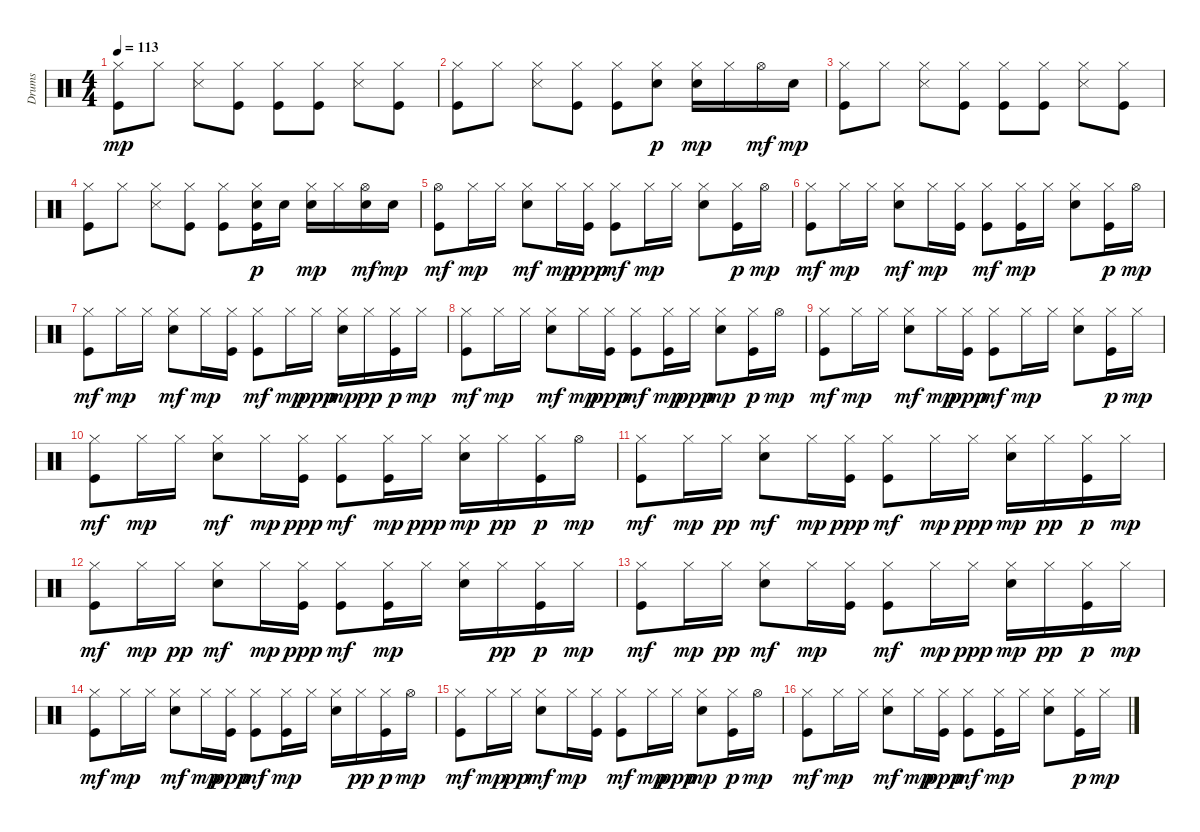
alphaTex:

\track ("Drums" "Drums") {instrument percussion}
\staff {score}
\articulation defaults
\ts (4 4)
\tempo 113
\clef neutral
\ks c
("Kick (hit)" "Hi-Hat (closed)").8{dy mp} "Hi-Hat (closed)".8 ("Snare (side stick) 3" "Hi-Hat (closed)").8 ("Kick (hit)" "Hi-Hat (closed)").8 ("Kick (hit)" "Hi-Hat (closed)").8 ("Kick (hit)" "Hi-Hat (closed)").8 ("Snare (side stick) 3" "Hi-Hat (closed)").8 ("Kick (hit)" "Hi-Hat (closed)").8 |
("Kick (hit)" "Hi-Hat (closed)").8 "Hi-Hat (closed)".8 ("Snare (side stick) 3" "Hi-Hat (closed)").8 ("Kick (hit)" "Hi-Hat (closed)").8 ("Kick (hit)" "Hi-Hat (closed)").8 ("Hi-Hat (closed)" "Snare (hit) 2").8{dy p} ("Snare (hit) 2" "Hi-Hat (closed)").16{dy mp} "Hi-Hat (closed)".16 "Hi-Hat (open)".16{dy mf} "Snare (hit) 2".16{dy mp} |
("Kick (hit)" "Hi-Hat (closed)").8 "Hi-Hat (closed)".8 ("Snare (side stick) 3" "Hi-Hat (closed)").8 ("Kick (hit)" "Hi-Hat (closed)").8 ("Kick (hit)" "Hi-Hat (closed)").8 ("Kick (hit)" "Hi-Hat (closed)").8 ("Snare (side stick) 3" "Hi-Hat (closed)").8 ("Kick (hit)" "Hi-Hat (closed)").8 |
("Kick (hit)" "Hi-Hat (closed)").8 "Hi-Hat (closed)".8 ("Snare (side stick) 3" "Hi-Hat (closed)").8 ("Kick (hit)" "Hi-Hat (closed)").8 ("Kick (hit)" "Hi-Hat (closed)").8 ("Kick (hit)" "Hi-Hat (closed)" "Snare (hit) 2").16{dy p} "Snare (hit) 2".16 ("Snare (hit) 2" "Hi-Hat (closed)").16{dy mp} "Hi-Hat (closed)".16 ("Snare (hit) 2" "Hi-Hat (open)").16{dy mf} "Snare (hit) 2".16{dy mp} |
("Kick (hit)" "Hi-Hat (open)").8{dy mf} "Hi-Hat (closed)".16{dy mp} "Hi-Hat (closed)".16 ("Snare (hit) 2" "Hi-Hat (closed)").8{dy mf} "Hi-Hat (closed)".16{dy mp} ("Kick (hit)" "Hi-Hat (closed)").16{dy ppp} ("Kick (hit)" "Hi-Hat (closed)").8{dy mf} "Hi-Hat (closed)".16{dy mp} "Hi-Hat (closed)".16 ("Snare (hit) 2" "Hi-Hat (closed)").8 ("Kick (hit)" "Hi-Hat (closed)").16{dy p} "Hi-Hat (open)".16{dy mp} |
("Kick (hit)" "Hi-Hat (closed)").8{dy mf} "Hi-Hat (closed)".16{dy mp} "Hi-Hat (closed)".16 ("Snare (hit) 2" "Hi-Hat (closed)").8{dy mf} "Hi-Hat (closed)".16{dy mp} ("Kick (hit)" "Hi-Hat (closed)").16 ("Kick (hit)" "Hi-Hat (closed)").8{dy mf} ("Kick (hit)" "Hi-Hat (closed)").16{dy mp} "Hi-Hat (closed)".16 ("Snare (hit) 2" "Hi-Hat (closed)").8 ("Kick (hit)" "Hi-Hat (closed)").16{dy p} "Hi-Hat (open)".16{dy mp} |
("Kick (hit)" "Hi-Hat (closed)").8{dy mf} "Hi-Hat (closed)".16{dy mp} "Hi-Hat (closed)".16 ("Snare (hit) 2" "Hi-Hat (closed)").8{dy mf} "Hi-Hat (closed)".16{dy mp} ("Kick (hit)" "Hi-Hat (closed)").16 ("Kick (hit)" "Hi-Hat (closed)").8{dy mf} "Hi-Hat (closed)".16{dy mp} "Hi-Hat (closed)".16{dy ppp} ("Snare (hit) 2" "Hi-Hat (closed)").16{dy mp} "Hi-Hat (closed)".16{dy pp} ("Kick (hit)" "Hi-Hat (closed)").16{dy p} "Hi-Hat (closed)".16{dy mp} |
("Kick (hit)" "Hi-Hat (closed)").8{dy mf} "Hi-Hat (closed)".16{dy mp} "Hi-Hat (closed)".16 ("Snare (hit) 2" "Hi-Hat (closed)").8{dy mf} "Hi-Hat (closed)".16{dy mp} ("Kick (hit)" "Hi-Hat (closed)").16{dy ppp} ("Kick (hit)" "Hi-Hat (closed)").8{dy mf} ("Kick (hit)" "Hi-Hat (closed)").16{dy mp} "Hi-Hat (closed)".16{dy ppp} ("Snare (hit) 2" "Hi-Hat (closed)").8{dy mp} ("Kick (hit)" "Hi-Hat (closed)").16{dy p} "Hi-Hat (open)".16{dy mp} |
("Kick (hit)" "Hi-Hat (closed)").8{dy mf} "Hi-Hat (closed)".16{dy mp} "Hi-Hat (closed)".16 ("Snare (hit) 2" "Hi-Hat (closed)").8{dy mf} "Hi-Hat (closed)".16{dy mp} ("Kick (hit)" "Hi-Hat (closed)").16{dy ppp} ("Kick (hit)" "Hi-Hat (closed)").8{dy mf} "Hi-Hat (closed)".16{dy mp} "Hi-Hat (closed)".16 ("Snare (hit) 2" "Hi-Hat (closed)").8 ("Kick (hit)" "Hi-Hat (closed)").16{dy p} "Hi-Hat (closed)".16{dy mp} |
("Kick (hit)" "Hi-Hat (closed)").8{dy mf} "Hi-Hat (closed)".16{dy mp} "Hi-Hat (closed)".16 ("Snare (hit) 2" "Hi-Hat (closed)").8{dy mf} "Hi-Hat (closed)".16{dy mp} ("Kick (hit)" "Hi-Hat (closed)").16{dy ppp} ("Kick (hit)" "Hi-Hat (closed)").8{dy mf} ("Kick (hit)" "Hi-Hat (closed)").16{dy mp} "Hi-Hat (closed)".16{dy ppp} ("Snare (hit) 2" "Hi-Hat (closed)").16{dy mp} "Hi-Hat (closed)".16{dy pp} ("Kick (hit)" "Hi-Hat (closed)").16{dy p} "Hi-Hat (open)".16{dy mp} |
("Kick (hit)" "Hi-Hat (closed)").8{dy mf} "Hi-Hat (closed)".16{dy mp} "Hi-Hat (closed)".16{dy pp} ("Snare (hit) 2" "Hi-Hat (closed)").8{dy mf} "Hi-Hat (closed)".16{dy mp} ("Kick (hit)" "Hi-Hat (closed)").16{dy ppp} ("Kick (hit)" "Hi-Hat (closed)").8{dy mf} "Hi-Hat (closed)".16{dy mp} "Hi-Hat (closed)".16{dy ppp} ("Snare (hit) 2" "Hi-Hat (closed)").16{dy mp} "Hi-Hat (closed)".16{dy pp} ("Kick (hit)" "Hi-Hat (closed)").16{dy p} "Hi-Hat (closed)".16{dy mp} |
("Kick (hit)" "Hi-Hat (closed)").8{dy mf} "Hi-Hat (closed)".16{dy mp} "Hi-Hat (closed)".16{dy pp} ("Snare (hit) 2" "Hi-Hat (closed)").8{dy mf} "Hi-Hat (closed)".16{dy mp} ("Kick (hit)" "Hi-Hat (closed)").16{dy ppp} ("Kick (hit)" "Hi-Hat (closed)").8{dy mf} ("Kick (hit)" "Hi-Hat (closed)").16{dy mp} "Hi-Hat (closed)".16 ("Snare (hit) 2" "Hi-Hat (closed)").16 "Hi-Hat (closed)".16{dy pp} ("Kick (hit)" "Hi-Hat (closed)").16{dy p} "Hi-Hat (closed)".16{dy mp} |
("Kick (hit)" "Hi-Hat (closed)").8{dy mf} "Hi-Hat (closed)".16{dy mp} "Hi-Hat (closed)".16{dy pp} ("Snare (hit) 2" "Hi-Hat (closed)").8{dy mf} "Hi-Hat (closed)".16{dy mp} ("Kick (hit)" "Hi-Hat (closed)").16 ("Kick (hit)" "Hi-Hat (closed)").8{dy mf} "Hi-Hat (closed)".16{dy mp} "Hi-Hat (closed)".16{dy ppp} ("Snare (hit) 2" "Hi-Hat (closed)").16{dy mp} "Hi-Hat (closed)".16{dy pp} ("Kick (hit)" "Hi-Hat (closed)").16{dy p} "Hi-Hat (closed)".16{dy mp} |
("Kick (hit)" "Hi-Hat (closed)").8{dy mf} "Hi-Hat (closed)".16{dy mp} "Hi-Hat (closed)".16 ("Snare (hit) 2" "Hi-Hat (closed)").8{dy mf} "Hi-Hat (closed)".16{dy mp} ("Kick (hit)" "Hi-Hat (closed)").16{dy ppp} ("Kick (hit)" "Hi-Hat (closed)").8{dy mf} ("Kick (hit)" "Hi-Hat (closed)").16{dy mp} "Hi-Hat (closed)".16 ("Snare (hit) 2" "Hi-Hat (closed)").16 "Hi-Hat (closed)".16{dy pp} ("Kick (hit)" "Hi-Hat (closed)").16{dy p} "Hi-Hat (open)".16{dy mp} |
("Kick (hit)" "Hi-Hat (closed)").8{dy mf} "Hi-Hat (closed)".16{dy mp} "Hi-Hat (closed)".16{dy pp} ("Snare (hit) 2" "Hi-Hat (closed)").8{dy mf} "Hi-Hat (closed)".16{dy mp} ("Kick (hit)" "Hi-Hat (closed)").16 ("Kick (hit)" "Hi-Hat (closed)").8{dy mf} "Hi-Hat (closed)".16{dy mp} "Hi-Hat (closed)".16{dy ppp} ("Snare (hit) 2" "Hi-Hat (closed)").8{dy mp} ("Kick (hit)" "Hi-Hat (closed)").16{dy p} "Hi-Hat (open)".16{dy mp} |
("Kick (hit)" "Hi-Hat (closed)").8{dy mf} "Hi-Hat (closed)".16{dy mp} "Hi-Hat (closed)".16 ("Snare (hit) 2" "Hi-Hat (closed)").8{dy mf} "Hi-Hat (closed)".16{dy mp} ("Kick (hit)" "Hi-Hat (closed)").16{dy ppp} ("Kick (hit)" "Hi-Hat (closed)").8{dy mf} ("Kick (hit)" "Hi-Hat (closed)").16{dy mp} "Hi-Hat (closed)".16 ("Snare (hit) 2" "Hi-Hat (closed)").8 ("Kick (hit)" "Hi-Hat (closed)").16{dy p} "Hi-Hat (closed)".16{dy mp}
